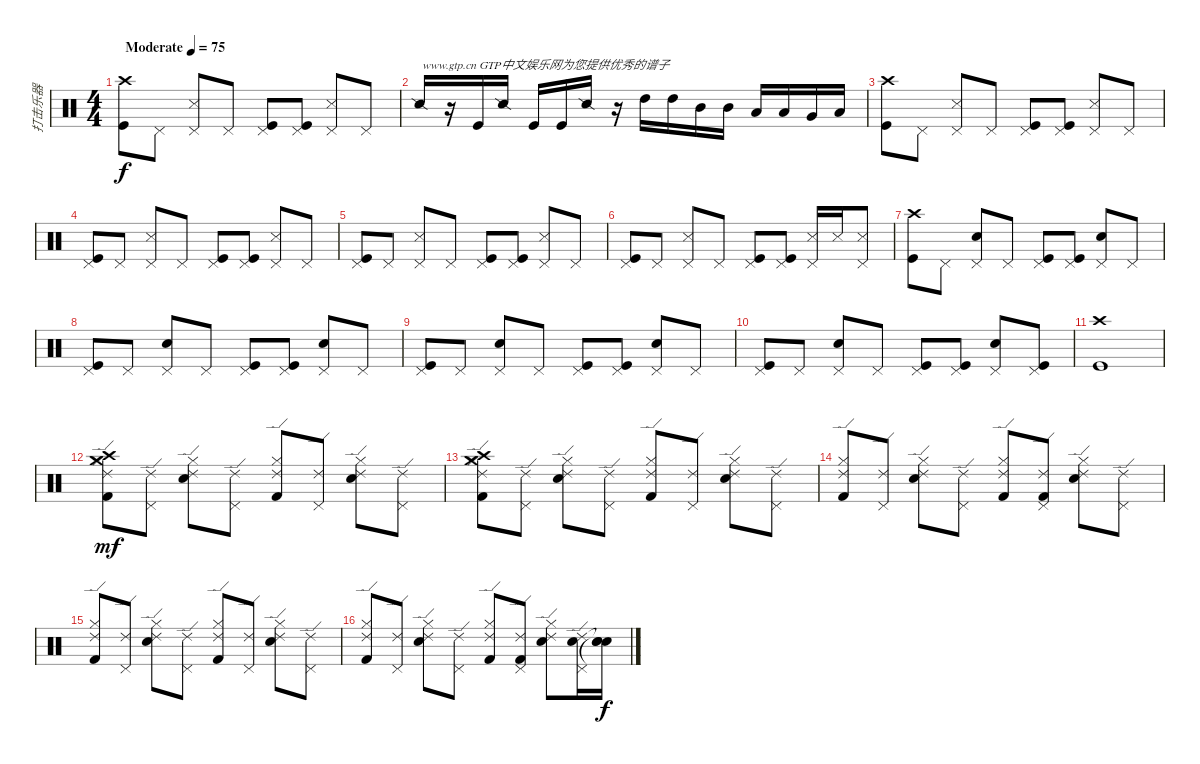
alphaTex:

\track ("打击乐器" "打击乐器") {instrument percussion}
\staff {score}
\articulation defaults
\ts (4 4)
\tempo (75 "Moderate")
\clef neutral
\ks c
("Kick (hit)" "Crash high (hit)").8{dy f} "Pedal Hi-Hat (hit)".8 ("Snare (side stick) 3" "Pedal Hi-Hat (hit)").8 "Pedal Hi-Hat (hit)".8 ("Kick (hit)" "Pedal Hi-Hat (hit)").8 ("Kick (hit)" "Pedal Hi-Hat (hit)").8 ("Snare (side stick) 3" "Pedal Hi-Hat (hit)").8 "Pedal Hi-Hat (hit)".8 |
"Snare (side stick) 2".16{txt "www.gtp.cn GTP中文娱乐网为您提供优秀的谱子"} r.16 "Kick (hit)".16 "Snare (side stick) 2".16 "Kick (hit)".16 "Kick (hit)".16 "Snare (side stick) 2".16 r.16 "High Tom (hit)".16 "High Tom (hit)".16 "Mid Tom (hit)".16 "Mid Tom (hit)".16 "Low Tom (hit)".16 "Low Tom (hit)".16 "Very Low Tom (hit)".16 "Low Floor Tom (hit)".16 |
("Kick (hit)" "Crash high (hit)").8 "Pedal Hi-Hat (hit)".8 ("Snare (side stick) 3" "Pedal Hi-Hat (hit)").8 "Pedal Hi-Hat (hit)".8 ("Kick (hit)" "Pedal Hi-Hat (hit)").8 ("Kick (hit)" "Pedal Hi-Hat (hit)").8 ("Snare (side stick) 3" "Pedal Hi-Hat (hit)").8 "Pedal Hi-Hat (hit)".8 |
("Kick (hit)" "Pedal Hi-Hat (hit)").8 "Pedal Hi-Hat (hit)".8 ("Snare (side stick) 3" "Pedal Hi-Hat (hit)").8 "Pedal Hi-Hat (hit)".8 ("Kick (hit)" "Pedal Hi-Hat (hit)").8 ("Kick (hit)" "Pedal Hi-Hat (hit)").8 ("Snare (side stick) 3" "Pedal Hi-Hat (hit)").8 "Pedal Hi-Hat (hit)".8 |
("Kick (hit)" "Pedal Hi-Hat (hit)").8 "Pedal Hi-Hat (hit)".8 ("Snare (side stick) 3" "Pedal Hi-Hat (hit)").8 "Pedal Hi-Hat (hit)".8 ("Kick (hit)" "Pedal Hi-Hat (hit)").8 ("Kick (hit)" "Pedal Hi-Hat (hit)").8 ("Snare (side stick) 3" "Pedal Hi-Hat (hit)").8 "Pedal Hi-Hat (hit)".8 |
("Kick (hit)" "Pedal Hi-Hat (hit)").8 "Pedal Hi-Hat (hit)".8 ("Snare (side stick) 3" "Pedal Hi-Hat (hit)").8 "Pedal Hi-Hat (hit)".8 ("Kick (hit)" "Pedal Hi-Hat (hit)").8 ("Kick (hit)" "Pedal Hi-Hat (hit)").8 ("Snare (side stick) 3" "Pedal Hi-Hat (hit)").16 "Snare (side stick) 3".16 ("Snare (side stick) 3" "Pedal Hi-Hat (hit)").8 |
("Kick (hit)" "Crash high (hit)").8 "Pedal Hi-Hat (hit)".8 ("Snare (hit) 2" "Pedal Hi-Hat (hit)").8 "Pedal Hi-Hat (hit)".8 ("Kick (hit)" "Pedal Hi-Hat (hit)").8 ("Kick (hit)" "Pedal Hi-Hat (hit)").8 ("Snare (hit) 2" "Pedal Hi-Hat (hit)").8 "Pedal Hi-Hat (hit)".8 |
("Kick (hit)" "Pedal Hi-Hat (hit)").8 "Pedal Hi-Hat (hit)".8 ("Snare (hit) 2" "Pedal Hi-Hat (hit)").8 "Pedal Hi-Hat (hit)".8 ("Kick (hit)" "Pedal Hi-Hat (hit)").8 ("Kick (hit)" "Pedal Hi-Hat (hit)").8 ("Snare (hit) 2" "Pedal Hi-Hat (hit)").8 "Pedal Hi-Hat (hit)".8 |
("Kick (hit)" "Pedal Hi-Hat (hit)").8 "Pedal Hi-Hat (hit)".8 ("Snare (hit) 2" "Pedal Hi-Hat (hit)").8 "Pedal Hi-Hat (hit)".8 ("Kick (hit)" "Pedal Hi-Hat (hit)").8 ("Kick (hit)" "Pedal Hi-Hat (hit)").8 ("Snare (hit) 2" "Pedal Hi-Hat (hit)").8 "Pedal Hi-Hat (hit)".8 |
("Kick (hit)" "Pedal Hi-Hat (hit)").8 "Pedal Hi-Hat (hit)".8 ("Snare (hit) 2" "Pedal Hi-Hat (hit)").8 "Pedal Hi-Hat (hit)".8 ("Kick (hit)" "Pedal Hi-Hat (hit)").8 ("Kick (hit)" "Pedal Hi-Hat (hit)").8 ("Snare (hit) 2" "Pedal Hi-Hat (hit)").8 ("Kick (hit)" "Pedal Hi-Hat (hit)").8 |
("Kick (hit)" "Crash high (hit)").1 |
("Kick (hit) 2" "Hi-Hat (closed)" "Crash high (hit)" "Crash medium (hit)" "Ride (edge) 2").8{dy mf} ("Pedal Hi-Hat (hit)" "Ride (edge) 2").8 ("Electric Snare (hit)" "Hi-Hat (closed)" "Ride (edge) 2").8 ("Pedal Hi-Hat (hit)" "Ride (edge) 2").8 ("Kick (hit) 2" "Hi-Hat (closed)" "Ride (edge) 2").8 ("Pedal Hi-Hat (hit)" "Ride (edge) 2").8 ("Electric Snare (hit)" "Hi-Hat (closed)" "Ride (edge) 2").8 ("Pedal Hi-Hat (hit)" "Ride (edge) 2").8 |
("Kick (hit) 2" "Hi-Hat (closed)" "Crash high (hit)" "Crash medium (hit)" "Ride (edge) 2").8 ("Pedal Hi-Hat (hit)" "Ride (edge) 2").8 ("Electric Snare (hit)" "Hi-Hat (closed)" "Ride (edge) 2").8 ("Pedal Hi-Hat (hit)" "Ride (edge) 2").8 ("Kick (hit) 2" "Hi-Hat (closed)" "Ride (edge) 2").8 ("Pedal Hi-Hat (hit)" "Ride (edge) 2").8 ("Electric Snare (hit)" "Hi-Hat (closed)" "Ride (edge) 2").8 ("Pedal Hi-Hat (hit)" "Ride (edge) 2").8 |
("Kick (hit) 2" "Hi-Hat (closed)" "Ride (edge) 2").8 ("Pedal Hi-Hat (hit)" "Ride (edge) 2").8 ("Electric Snare (hit)" "Hi-Hat (closed)" "Ride (edge) 2").8 ("Pedal Hi-Hat (hit)" "Ride (edge) 2").8 ("Kick (hit) 2" "Hi-Hat (closed)" "Ride (edge) 2").8 ("Kick (hit) 2" "Pedal Hi-Hat (hit)" "Ride (edge) 2").8 ("Electric Snare (hit)" "Hi-Hat (closed)" "Ride (edge) 2").8 ("Pedal Hi-Hat (hit)" "Ride (edge) 2").8 |
("Kick (hit) 2" "Hi-Hat (closed)" "Ride (edge) 2").8 ("Pedal Hi-Hat (hit)" "Ride (edge) 2").8 ("Electric Snare (hit)" "Hi-Hat (closed)" "Ride (edge) 2").8 ("Pedal Hi-Hat (hit)" "Ride (edge) 2").8 ("Kick (hit) 2" "Hi-Hat (closed)" "Ride (edge) 2").8 ("Pedal Hi-Hat (hit)" "Ride (edge) 2").8 ("Electric Snare (hit)" "Hi-Hat (closed)" "Ride (edge) 2").8 ("Pedal Hi-Hat (hit)" "Ride (edge) 2").8 |
("Kick (hit) 2" "Hi-Hat (closed)" "Ride (edge) 2").8 ("Pedal Hi-Hat (hit)" "Ride (edge) 2").8 ("Electric Snare (hit)" "Hi-Hat (closed)" "Ride (edge) 2").8 ("Pedal Hi-Hat (hit)" "Ride (edge) 2").8 ("Kick (hit) 2" "Hi-Hat (closed)" "Ride (edge) 2").8 ("Kick (hit) 2" "Pedal Hi-Hat (hit)" "Ride (edge) 2").8 ("Electric Snare (hit)" "Hi-Hat (closed)" "Ride (edge) 2").8 ("Electric Snare (hit)" "Pedal Hi-Hat (hit)" "Ride (edge) 2").16 ("Electric Snare (hit)" "Snare (hit)"{t} "Snare (hit)"{t}).16{dy f}
